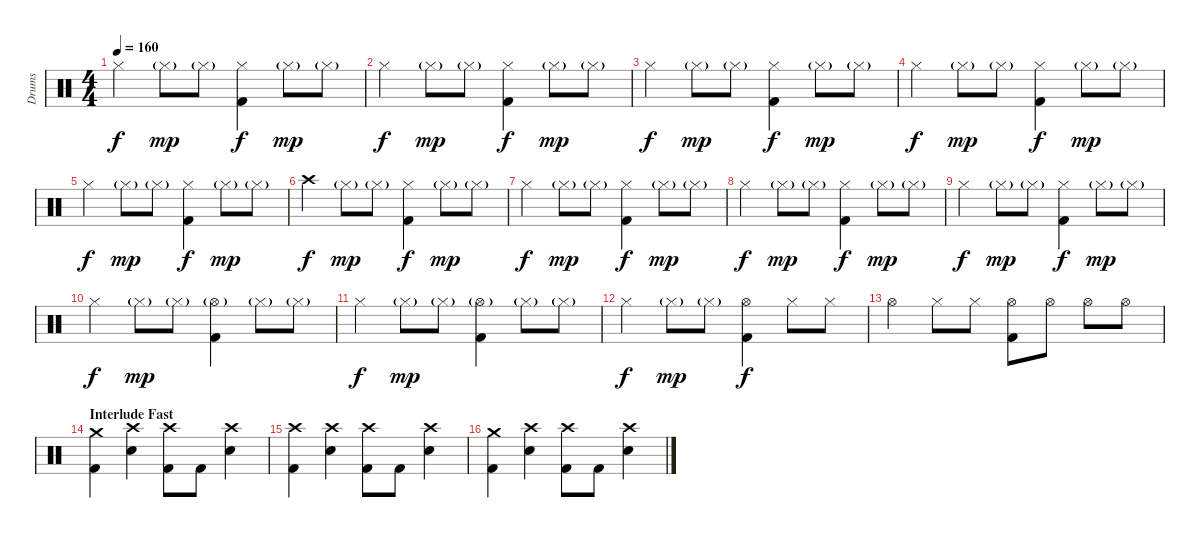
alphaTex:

\track ("Drums" "Drums") {instrument percussion}
\staff {score}
\articulation defaults
\ts (4 4)
\tempo 160
\clef neutral
\ks c "Hi-Hat (closed)".4{dy f} "Hi-Hat (closed)"{g}.8{dy mp} "Hi-Hat (closed)"{g}.8
("Hi-Hat (closed)" "Kick (hit) 2").4{dy f} "Hi-Hat (closed)"{g}.8{dy mp} "Hi-Hat (closed)"{g}.8 |
"Hi-Hat (closed)".4{dy f} "Hi-Hat (closed)"{g}.8{dy mp} "Hi-Hat (closed)"{g}.8 ("Hi-Hat (closed)" "Kick (hit) 2").4{dy f} "Hi-Hat (closed)"{g}.8{dy mp} "Hi-Hat (closed)"{g}.8 |
"Hi-Hat (closed)".4{dy f} "Hi-Hat (closed)"{g}.8{dy mp} "Hi-Hat (closed)"{g}.8 ("Hi-Hat (closed)" "Kick (hit) 2").4{dy f} "Hi-Hat (closed)"{g}.8{dy mp} "Hi-Hat (closed)"{g}.8 |
"Hi-Hat (closed)".4{dy f} "Hi-Hat (closed)"{g}.8{dy mp} "Hi-Hat (closed)"{g}.8 ("Hi-Hat (closed)" "Kick (hit) 2").4{dy f} "Hi-Hat (closed)"{g}.8{dy mp} "Hi-Hat (closed)"{g}.8 |
"Hi-Hat (closed)".4{dy f} "Hi-Hat (closed)"{g}.8{dy mp} "Hi-Hat (closed)"{g}.8 ("Hi-Hat (closed)" "Kick (hit) 2").4{dy f} "Hi-Hat (closed)"{g}.8{dy mp} "Hi-Hat (closed)"{g}.8 |
"Crash high (hit)".4{dy f} "Hi-Hat (closed)"{g}.8{dy mp} "Hi-Hat (closed)"{g}.8 ("Hi-Hat (closed)" "Kick (hit) 2").4{dy f} "Hi-Hat (closed)"{g}.8{dy mp} "Hi-Hat (closed)"{g}.8 |
"Hi-Hat (closed)".4{dy f} "Hi-Hat (closed)"{g}.8{dy mp} "Hi-Hat (closed)"{g}.8 ("Hi-Hat (closed)" "Kick (hit) 2").4{dy f} "Hi-Hat (closed)"{g}.8{dy mp} "Hi-Hat (closed)"{g}.8 |
"Hi-Hat (closed)".4{dy f} "Hi-Hat (closed)"{g}.8{dy mp} "Hi-Hat (closed)"{g}.8 ("Hi-Hat (closed)" "Kick (hit) 2").4{dy f} "Hi-Hat (closed)"{g}.8{dy mp} "Hi-Hat (closed)"{g}.8 |
"Hi-Hat (closed)".4{dy f} "Hi-Hat (closed)"{g}.8{dy mp} "Hi-Hat (closed)"{g}.8 ("Hi-Hat (closed)" "Kick (hit) 2").4{dy f} "Hi-Hat (closed)"{g}.8{dy mp} "Hi-Hat (closed)"{g}.8 |
"Hi-Hat (closed)".4{dy f} "Hi-Hat (closed)"{g}.8{dy mp} "Hi-Hat (closed)"{g}.8 ("Hi-Hat (open)"{g} "Kick (hit) 2").4 "Hi-Hat (closed)"{g}.8 "Hi-Hat (closed)"{g}.8 |
"Hi-Hat (closed)".4{dy f} "Hi-Hat (closed)"{g}.8{dy mp} "Hi-Hat (closed)"{g}.8 ("Hi-Hat (open)"{g} "Kick (hit) 2").4 "Hi-Hat (closed)"{g}.8 "Hi-Hat (closed)"{g}.8 |
"Hi-Hat (closed)".4{dy f} "Hi-Hat (closed)"{g}.8{dy mp} "Hi-Hat (closed)"{g}.8 ("Hi-Hat (open)" "Kick (hit) 2").4{dy f} "Hi-Hat (closed)".8 "Hi-Hat (closed)".8 |
"Hi-Hat (open)".4 "Hi-Hat (closed)".8 "Hi-Hat (closed)".8 ("Hi-Hat (open)" "Kick (hit) 2").8 "Hi-Hat (open)".8 "Hi-Hat (open)".8 "Hi-Hat (open)".8 |
\section ("" "Interlude Fast")
("Crash medium (hit)" "Kick (hit) 2").4 ("Crash high (hit)" "Electric Snare (hit)").4 ("Crash high (hit)" "Kick (hit) 2").8 "Kick (hit) 2".8 ("Crash high (hit)" "Electric Snare (hit)").4 |
("Crash high (hit)" "Kick (hit) 2").4 ("Crash high (hit)" "Electric Snare (hit)").4 ("Crash high (hit)" "Kick (hit) 2").8 "Kick (hit) 2".8 ("Crash high (hit)" "Electric Snare (hit)").4 |
("Crash medium (hit)" "Kick (hit) 2").4 ("Crash high (hit)" "Electric Snare (hit)").4 ("Crash high (hit)" "Kick (hit) 2").8 "Kick (hit) 2".8 ("Crash high (hit)" "Electric Snare (hit)").4
